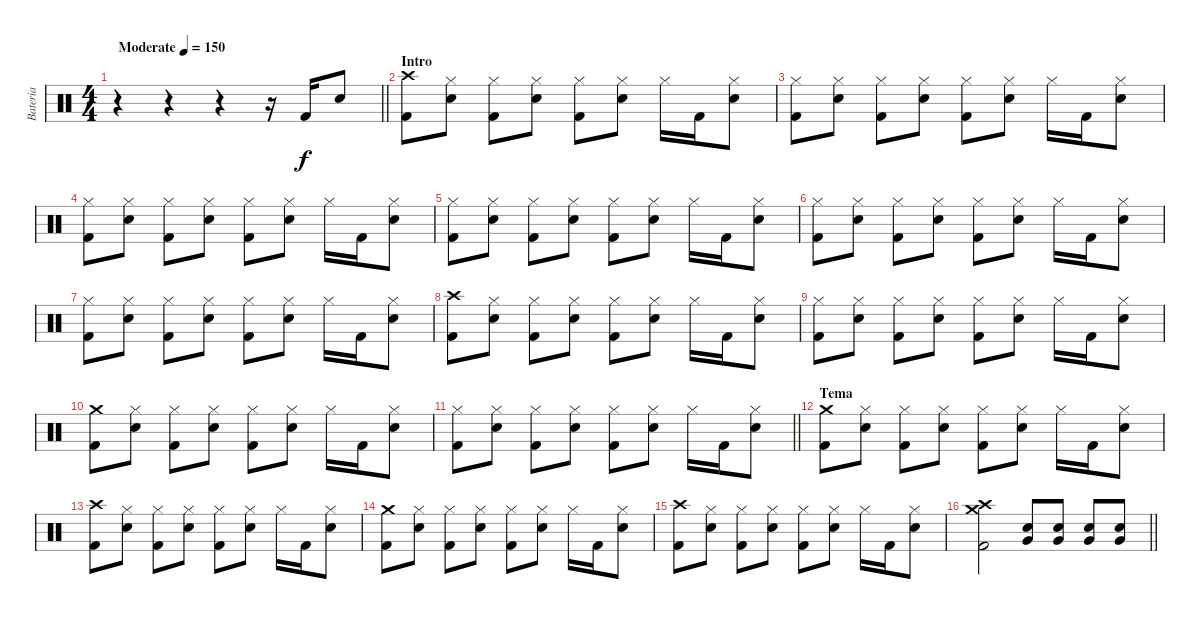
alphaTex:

\track ("Bateria" "Bateria") {instrument percussion}
\staff {score}
\articulation defaults
\ts (4 4)
\tempo (150 "Moderate")
\clef neutral
\barLineRight lightlight
\ks c
r.4{dy f} r.4 r.4 r.16 "Kick (hit) 2".16 "Electric Snare (hit)".8 |
\section ("" "Intro")
("Crash high (hit)" "Kick (hit) 2").8 ("Hi-Hat (closed)" "Electric Snare (hit)").8 ("Hi-Hat (closed)" "Kick (hit) 2").8 ("Hi-Hat (closed)" "Electric Snare (hit)").8 ("Hi-Hat (closed)" "Kick (hit) 2").8 ("Hi-Hat (closed)" "Electric Snare (hit)").8 "Hi-Hat (closed)".16 "Kick (hit) 2".16 ("Hi-Hat (closed)" "Electric Snare (hit)").8 |
("Hi-Hat (closed)" "Kick (hit) 2").8 ("Hi-Hat (closed)" "Electric Snare (hit)").8 ("Hi-Hat (closed)" "Kick (hit) 2").8 ("Hi-Hat (closed)" "Electric Snare (hit)").8 ("Hi-Hat (closed)" "Kick (hit) 2").8 ("Hi-Hat (closed)" "Electric Snare (hit)").8 "Hi-Hat (closed)".16 "Kick (hit) 2".16 ("Hi-Hat (closed)" "Electric Snare (hit)").8 |
("Hi-Hat (closed)" "Kick (hit) 2").8 ("Hi-Hat (closed)" "Electric Snare (hit)").8 ("Hi-Hat (closed)" "Kick (hit) 2").8 ("Hi-Hat (closed)" "Electric Snare (hit)").8 ("Hi-Hat (closed)" "Kick (hit) 2").8 ("Hi-Hat (closed)" "Electric Snare (hit)").8 "Hi-Hat (closed)".16 "Kick (hit) 2".16 ("Hi-Hat (closed)" "Electric Snare (hit)").8 |
("Hi-Hat (closed)" "Kick (hit) 2").8 ("Hi-Hat (closed)" "Electric Snare (hit)").8 ("Hi-Hat (closed)" "Kick (hit) 2").8 ("Hi-Hat (closed)" "Electric Snare (hit)").8 ("Hi-Hat (closed)" "Kick (hit) 2").8 ("Hi-Hat (closed)" "Electric Snare (hit)").8 "Hi-Hat (closed)".16 "Kick (hit) 2".16 ("Hi-Hat (closed)" "Electric Snare (hit)").8 |
("Hi-Hat (closed)" "Kick (hit) 2").8 ("Hi-Hat (closed)" "Electric Snare (hit)").8 ("Hi-Hat (closed)" "Kick (hit) 2").8 ("Hi-Hat (closed)" "Electric Snare (hit)").8 ("Hi-Hat (closed)" "Kick (hit) 2").8 ("Hi-Hat (closed)" "Electric Snare (hit)").8 "Hi-Hat (closed)".16 "Kick (hit) 2".16 ("Hi-Hat (closed)" "Electric Snare (hit)").8 |
("Hi-Hat (closed)" "Kick (hit) 2").8 ("Hi-Hat (closed)" "Electric Snare (hit)").8 ("Hi-Hat (closed)" "Kick (hit) 2").8 ("Hi-Hat (closed)" "Electric Snare (hit)").8 ("Hi-Hat (closed)" "Kick (hit) 2").8 ("Hi-Hat (closed)" "Electric Snare (hit)").8 "Hi-Hat (closed)".16 "Kick (hit) 2".16 ("Hi-Hat (closed)" "Electric Snare (hit)").8 |
("Crash high (hit)" "Kick (hit) 2").8 ("Hi-Hat (closed)" "Electric Snare (hit)").8 ("Hi-Hat (closed)" "Kick (hit) 2").8 ("Hi-Hat (closed)" "Electric Snare (hit)").8 ("Hi-Hat (closed)" "Kick (hit) 2").8 ("Hi-Hat (closed)" "Electric Snare (hit)").8 "Hi-Hat (closed)".16 "Kick (hit) 2".16 ("Hi-Hat (closed)" "Electric Snare (hit)").8 |
("Hi-Hat (closed)" "Kick (hit) 2").8 ("Hi-Hat (closed)" "Electric Snare (hit)").8 ("Hi-Hat (closed)" "Kick (hit) 2").8 ("Hi-Hat (closed)" "Electric Snare (hit)").8 ("Hi-Hat (closed)" "Kick (hit) 2").8 ("Hi-Hat (closed)" "Electric Snare (hit)").8 "Hi-Hat (closed)".16 "Kick (hit) 2".16 ("Hi-Hat (closed)" "Electric Snare (hit)").8 |
("Crash medium (hit)" "Kick (hit) 2").8 ("Hi-Hat (closed)" "Electric Snare (hit)").8 ("Hi-Hat (closed)" "Kick (hit) 2").8 ("Hi-Hat (closed)" "Electric Snare (hit)").8 ("Hi-Hat (closed)" "Kick (hit) 2").8 ("Hi-Hat (closed)" "Electric Snare (hit)").8 "Hi-Hat (closed)".16 "Kick (hit) 2".16 ("Hi-Hat (closed)" "Electric Snare (hit)").8 |
\barLineRight lightlight
("Hi-Hat (closed)" "Kick (hit) 2").8 ("Hi-Hat (closed)" "Electric Snare (hit)").8 ("Hi-Hat (closed)" "Kick (hit) 2").8 ("Hi-Hat (closed)" "Electric Snare (hit)").8 ("Hi-Hat (closed)" "Kick (hit) 2").8 ("Hi-Hat (closed)" "Electric Snare (hit)").8 "Hi-Hat (closed)".16 "Kick (hit) 2".16 ("Hi-Hat (closed)" "Electric Snare (hit)").8 |
\section ("" "Tema")
("Crash medium (hit)" "Kick (hit) 2").8 ("Hi-Hat (closed)" "Electric Snare (hit)").8 ("Hi-Hat (closed)" "Kick (hit) 2").8 ("Hi-Hat (closed)" "Electric Snare (hit)").8 ("Hi-Hat (closed)" "Kick (hit) 2").8 ("Hi-Hat (closed)" "Electric Snare (hit)").8 "Hi-Hat (closed)".16 "Kick (hit) 2".16 ("Hi-Hat (closed)" "Electric Snare (hit)").8 |
("Crash high (hit)" "Kick (hit) 2").8 ("Hi-Hat (closed)" "Electric Snare (hit)").8 ("Hi-Hat (closed)" "Kick (hit) 2").8 ("Hi-Hat (closed)" "Electric Snare (hit)").8 ("Hi-Hat (closed)" "Kick (hit) 2").8 ("Hi-Hat (closed)" "Electric Snare (hit)").8 "Hi-Hat (closed)".16 "Kick (hit) 2".16 ("Hi-Hat (closed)" "Electric Snare (hit)").8 |
("Crash medium (hit)" "Kick (hit) 2").8 ("Hi-Hat (closed)" "Electric Snare (hit)").8 ("Hi-Hat (closed)" "Kick (hit) 2").8 ("Hi-Hat (closed)" "Electric Snare (hit)").8 ("Hi-Hat (closed)" "Kick (hit) 2").8 ("Hi-Hat (closed)" "Electric Snare (hit)").8 "Hi-Hat (closed)".16 "Kick (hit) 2".16 ("Hi-Hat (closed)" "Electric Snare (hit)").8 |
("Crash high (hit)" "Kick (hit) 2").8 ("Hi-Hat (closed)" "Electric Snare (hit)").8 ("Hi-Hat (closed)" "Kick (hit) 2").8 ("Hi-Hat (closed)" "Electric Snare (hit)").8 ("Hi-Hat (closed)" "Kick (hit) 2").8 ("Hi-Hat (closed)" "Electric Snare (hit)").8 "Hi-Hat (closed)".16 "Kick (hit) 2".16 ("Hi-Hat (closed)" "Electric Snare (hit)").8 |
\barLineRight lightlight
("Crash medium (hit)" "Crash high (hit)" "Kick (hit) 2").2 ("Very Low Tom (hit)" "Electric Snare (hit)").8 ("Very Low Tom (hit)" "Electric Snare (hit)").8 ("Very Low Tom (hit)" "Electric Snare (hit)").8 ("Very Low Tom (hit)" "Electric Snare (hit)").8
